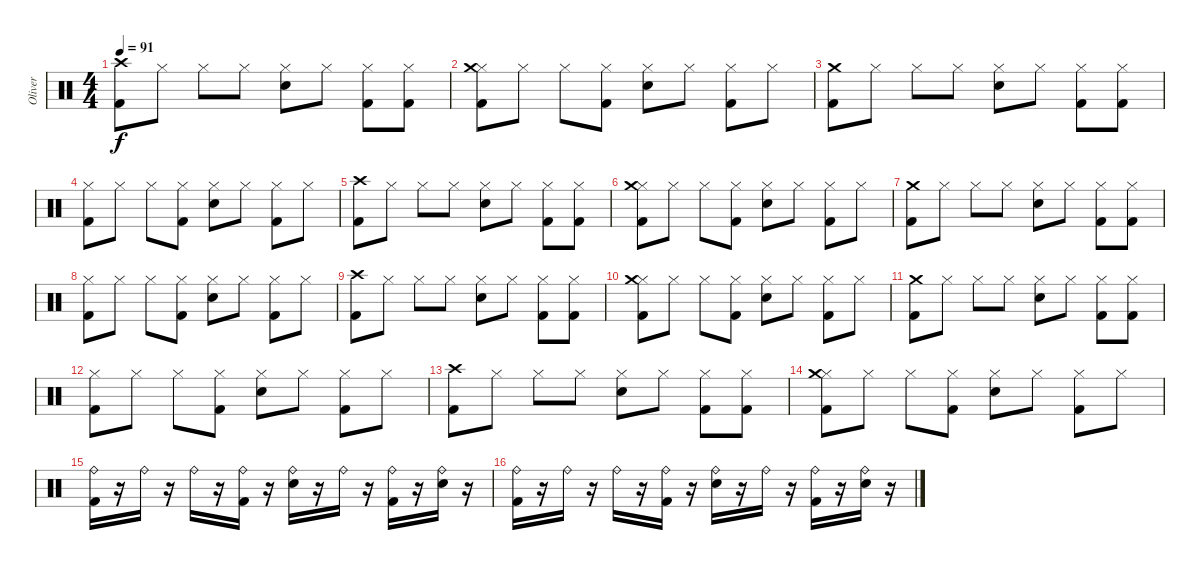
\track ("Oliver" "Oliver") {instrument percussion}
\staff {score}
\articulation defaults
\ts (4 4)
\tempo 91
\clef neutral
\ks c
("Kick (hit) 2" "Crash high (hit)").8{dy f} "Hi-Hat (closed)".8 "Hi-Hat (closed)".8 "Hi-Hat (closed)".8 ("Hi-Hat (closed)" "Snare (hit) 2").8 "Hi-Hat (closed)".8 ("Hi-Hat (closed)" "Kick (hit) 2").8 ("Hi-Hat (closed)" "Kick (hit) 2").8 |
("Hi-Hat (closed)" "Kick (hit) 2" "Crash medium (hit)").8 "Hi-Hat (closed)".8 "Hi-Hat (closed)".8 ("Hi-Hat (closed)" "Kick (hit) 2").8 ("Hi-Hat (closed)" "Snare (hit) 2").8 "Hi-Hat (closed)".8 ("Hi-Hat (closed)" "Kick (hit) 2").8 "Hi-Hat (closed)".8 |
("Kick (hit) 2" "Crash medium (hit)").8 "Hi-Hat (closed)".8 "Hi-Hat (closed)".8 "Hi-Hat (closed)".8 ("Hi-Hat (closed)" "Snare (hit) 2").8 "Hi-Hat (closed)".8 ("Hi-Hat (closed)" "Kick (hit) 2").8 ("Hi-Hat (closed)" "Kick (hit) 2").8 |
("Hi-Hat (closed)" "Kick (hit) 2").8 "Hi-Hat (closed)".8 "Hi-Hat (closed)".8 ("Hi-Hat (closed)" "Kick (hit) 2").8 ("Hi-Hat (closed)" "Snare (hit) 2").8 "Hi-Hat (closed)".8 ("Hi-Hat (closed)" "Kick (hit) 2").8 "Hi-Hat (closed)".8 |
("Kick (hit) 2" "Crash high (hit)").8 "Hi-Hat (closed)".8 "Hi-Hat (closed)".8 "Hi-Hat (closed)".8 ("Hi-Hat (closed)" "Snare (hit) 2").8 "Hi-Hat (closed)".8 ("Hi-Hat (closed)" "Kick (hit) 2").8 ("Hi-Hat (closed)" "Kick (hit) 2").8 |
("Hi-Hat (closed)" "Kick (hit) 2" "Crash medium (hit)").8 "Hi-Hat (closed)".8 "Hi-Hat (closed)".8 ("Hi-Hat (closed)" "Kick (hit) 2").8 ("Hi-Hat (closed)" "Snare (hit) 2").8 "Hi-Hat (closed)".8 ("Hi-Hat (closed)" "Kick (hit) 2").8 "Hi-Hat (closed)".8 |
("Kick (hit) 2" "Crash medium (hit)").8 "Hi-Hat (closed)".8 "Hi-Hat (closed)".8 "Hi-Hat (closed)".8 ("Hi-Hat (closed)" "Snare (hit) 2").8 "Hi-Hat (closed)".8 ("Hi-Hat (closed)" "Kick (hit) 2").8 ("Hi-Hat (closed)" "Kick (hit) 2").8 |
("Hi-Hat (closed)" "Kick (hit) 2").8 "Hi-Hat (closed)".8 "Hi-Hat (closed)".8 ("Hi-Hat (closed)" "Kick (hit) 2").8 ("Hi-Hat (closed)" "Snare (hit) 2").8 "Hi-Hat (closed)".8 ("Hi-Hat (closed)" "Kick (hit) 2").8 "Hi-Hat (closed)".8 |
("Kick (hit) 2" "Crash high (hit)").8 "Hi-Hat (closed)".8 "Hi-Hat (closed)".8 "Hi-Hat (closed)".8 ("Hi-Hat (closed)" "Snare (hit) 2").8 "Hi-Hat (closed)".8 ("Hi-Hat (closed)" "Kick (hit) 2").8 ("Hi-Hat (closed)" "Kick (hit) 2").8 |
("Hi-Hat (closed)" "Kick (hit) 2" "Crash medium (hit)").8 "Hi-Hat (closed)".8 "Hi-Hat (closed)".8 ("Hi-Hat (closed)" "Kick (hit) 2").8 ("Hi-Hat (closed)" "Snare (hit) 2").8 "Hi-Hat (closed)".8 ("Hi-Hat (closed)" "Kick (hit) 2").8 "Hi-Hat (closed)".8 |
("Kick (hit) 2" "Crash medium (hit)").8 "Hi-Hat (closed)".8 "Hi-Hat (closed)".8 "Hi-Hat (closed)".8 ("Hi-Hat (closed)" "Snare (hit) 2").8 "Hi-Hat (closed)".8 ("Hi-Hat (closed)" "Kick (hit) 2").8 ("Hi-Hat (closed)" "Kick (hit) 2").8 |
("Hi-Hat (closed)" "Kick (hit) 2").8 "Hi-Hat (closed)".8 "Hi-Hat (closed)".8 ("Hi-Hat (closed)" "Kick (hit) 2").8 ("Hi-Hat (closed)" "Snare (hit) 2").8 "Hi-Hat (closed)".8 ("Hi-Hat (closed)" "Kick (hit) 2").8 "Hi-Hat (closed)".8 |
("Kick (hit) 2" "Crash high (hit)").8 "Hi-Hat (closed)".8 "Hi-Hat (closed)".8 "Hi-Hat (closed)".8 ("Hi-Hat (closed)" "Snare (hit) 2").8 "Hi-Hat (closed)".8 ("Hi-Hat (closed)" "Kick (hit) 2").8 ("Hi-Hat (closed)" "Kick (hit) 2").8 |
("Hi-Hat (closed)" "Kick (hit) 2" "Crash medium (hit)").8 "Hi-Hat (closed)".8 "Hi-Hat (closed)".8 ("Hi-Hat (closed)" "Kick (hit) 2").8 ("Hi-Hat (closed)" "Snare (hit) 2").8 "Hi-Hat (closed)".8 ("Hi-Hat (closed)" "Kick (hit) 2").8 "Hi-Hat (closed)".8 |
("Ride (bell)" "Kick (hit) 2").16 r.16 "Ride (bell)".16 r.16 "Ride (bell)".16 r.16 ("Ride (bell)" "Kick (hit) 2").16 r.16 ("Ride (bell)" "Snare (hit) 2").16 r.16 "Ride (bell)".16 r.16 ("Ride (bell)" "Kick (hit) 2").16 r.16 ("Ride (bell)" "Snare (hit) 2").16 r.16 |
("Ride (bell)" "Kick (hit) 2").16 r.16 "Ride (bell)".16 r.16 "Ride (bell)".16 r.16 ("Ride (bell)" "Kick (hit) 2").16 r.16 ("Ride (bell)" "Snare (hit) 2").16 r.16 "Ride (bell)".16 r.16 ("Ride (bell)" "Kick (hit) 2").16 r.16 ("Ride (bell)" "Snare (hit) 2").16 r.16
